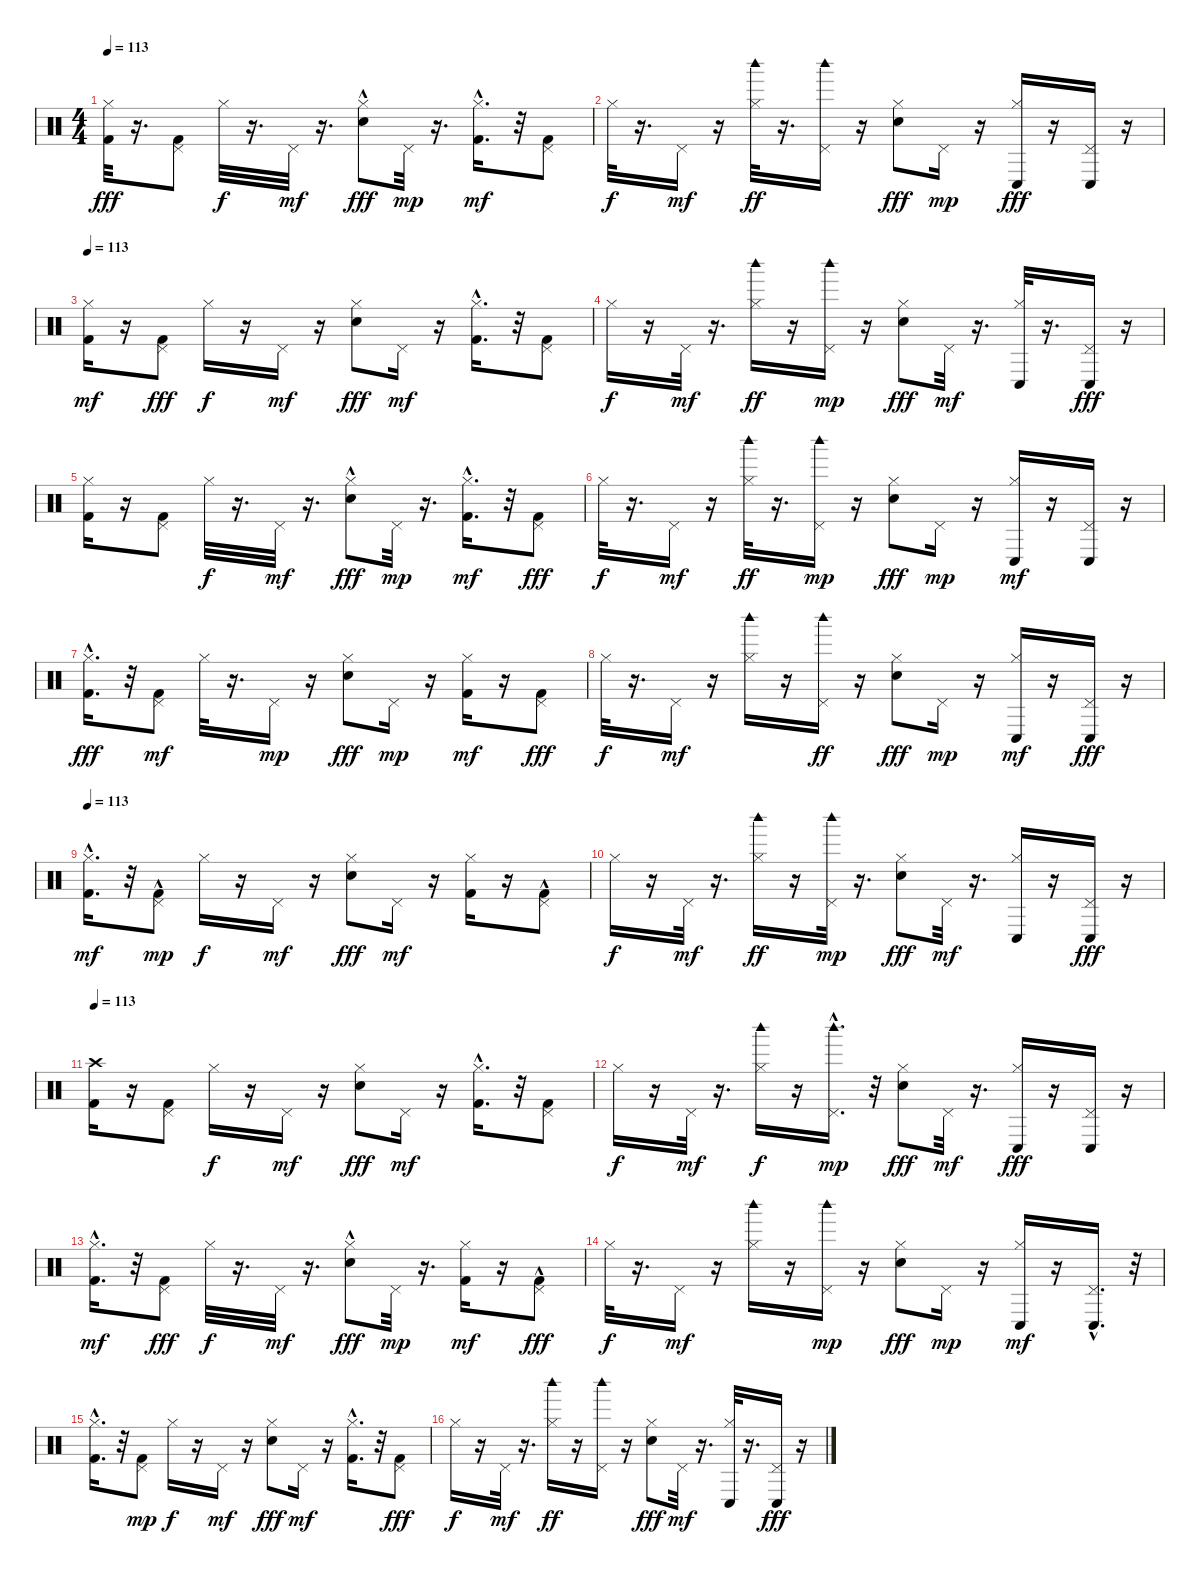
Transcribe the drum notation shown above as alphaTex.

\track "" {instrument percussion}
\staff {score}
\articulation defaults
\ts (4 4)
\tempo 113
\clef neutral
\ks c
("Hi-Hat (closed)" "Kick (hit) 2").32{dy fff} r.16{d} ("Pedal Hi-Hat (hit)" "Kick (hit) 2").8 "Hi-Hat (closed)".32{dy f} r.16{d} "Pedal Hi-Hat (hit)".32{dy mf} r.16{d} ("Hi-Hat (closed)" "Snare (hit) 2"{hac}).8{dy fff} "Pedal Hi-Hat (hit)".32{dy mp} r.16{d} ("Kick (hit) 2"{hac} "Hi-Hat (closed)").16{d dy mf} r.32 ("Kick (hit) 2" "Pedal Hi-Hat (hit)").8 |
"Hi-Hat (closed)".32{dy f} r.16{d} "Pedal Hi-Hat (hit)".16{dy mf} r.16 ("Hi-Hat (closed)" "Woodblock high (hit)").32{dy ff} r.16{d} ("Pedal Hi-Hat (hit)" "Woodblock high (hit)").16 r.16 ("Hi-Hat (closed)" "Snare (hit) 2").8{dy fff} "Pedal Hi-Hat (hit)".16{dy mp} r.16 ("Hi-Hat (closed)" "Conga low (hit)").16{dy fff} r.16 ("Pedal Hi-Hat (hit)" "Conga low (hit)").16 r.16 |
\tempo 113
("Kick (hit) 2" "Hi-Hat (closed)").16{dy mf} r.16 ("Pedal Hi-Hat (hit)" "Kick (hit) 2").8{dy fff} "Hi-Hat (closed)".16{dy f} r.16 "Pedal Hi-Hat (hit)".16{dy mf} r.16 ("Hi-Hat (closed)" "Snare (hit) 2").8{dy fff} "Pedal Hi-Hat (hit)".16{dy mf} r.16 ("Kick (hit) 2"{hac} "Hi-Hat (closed)").16{d} r.32 ("Kick (hit) 2" "Pedal Hi-Hat (hit)").8 |
"Hi-Hat (closed)".16{dy f} r.16 "Pedal Hi-Hat (hit)".32{dy mf} r.16{d} ("Woodblock high (hit)" "Hi-Hat (closed)").16{dy ff} r.16 ("Woodblock high (hit)" "Pedal Hi-Hat (hit)").16{dy mp} r.16 ("Hi-Hat (closed)" "Snare (hit) 2").8{dy fff} "Pedal Hi-Hat (hit)".32{dy mf} r.16{d} ("Conga low (hit)" "Hi-Hat (closed)").32 r.16{d} ("Pedal Hi-Hat (hit)" "Conga low (hit)").16{dy fff} r.16 |
("Hi-Hat (closed)" "Kick (hit) 2").16 r.16 ("Pedal Hi-Hat (hit)" "Kick (hit) 2").8 "Hi-Hat (closed)".32{dy f} r.16{d} "Pedal Hi-Hat (hit)".32{dy mf} r.16{d} ("Hi-Hat (closed)" "Snare (hit) 2"{hac}).8{dy fff} "Pedal Hi-Hat (hit)".32{dy mp} r.16{d} ("Kick (hit) 2"{hac} "Hi-Hat (closed)").16{d dy mf} r.32 ("Pedal Hi-Hat (hit)" "Kick (hit) 2").8{dy fff} |
"Hi-Hat (closed)".32{dy f} r.16{d} "Pedal Hi-Hat (hit)".16{dy mf} r.16 ("Hi-Hat (closed)" "Woodblock high (hit)").32{dy ff} r.16{d} ("Pedal Hi-Hat (hit)" "Woodblock high (hit)").16{dy mp} r.16 ("Hi-Hat (closed)" "Snare (hit) 2").8{dy fff} "Pedal Hi-Hat (hit)".16{dy mp} r.16 ("Conga low (hit)" "Hi-Hat (closed)").16{dy mf} r.16 ("Conga low (hit)" "Pedal Hi-Hat (hit)").16 r.16 |
("Kick (hit) 2"{hac} "Hi-Hat (closed)").16{d dy fff} r.32 ("Kick (hit) 2" "Pedal Hi-Hat (hit)").8{dy mf} "Hi-Hat (closed)".32 r.16{d} "Pedal Hi-Hat (hit)".16{dy mp} r.16 ("Hi-Hat (closed)" "Snare (hit) 2").8{dy fff} "Pedal Hi-Hat (hit)".16{dy mp} r.16 ("Kick (hit) 2" "Hi-Hat (closed)").16{dy mf} r.16 ("Pedal Hi-Hat (hit)" "Kick (hit) 2").8{dy fff} |
"Hi-Hat (closed)".32{dy f} r.16{d} "Pedal Hi-Hat (hit)".16{dy mf} r.16 ("Woodblock high (hit)" "Hi-Hat (closed)").16 r.16 ("Pedal Hi-Hat (hit)" "Woodblock high (hit)").16{dy ff} r.16 ("Hi-Hat (closed)" "Snare (hit) 2").8{dy fff} "Pedal Hi-Hat (hit)".16{dy mp} r.16 ("Conga low (hit)" "Hi-Hat (closed)").16{dy mf} r.16 ("Pedal Hi-Hat (hit)" "Conga low (hit)").16{dy fff} r.16 |
\tempo 113
("Kick (hit) 2"{hac} "Hi-Hat (closed)").16{d dy mf} r.32 ("Kick (hit) 2"{hac} "Pedal Hi-Hat (hit)").8{dy mp} "Hi-Hat (closed)".16{dy f} r.16 "Pedal Hi-Hat (hit)".16{dy mf} r.16 ("Hi-Hat (closed)" "Snare (hit) 2").8{dy fff} "Pedal Hi-Hat (hit)".16{dy mf} r.16 ("Kick (hit) 2" "Hi-Hat (closed)").16 r.16 ("Kick (hit) 2"{hac} "Pedal Hi-Hat (hit)").8 |
"Hi-Hat (closed)".16{dy f} r.16 "Pedal Hi-Hat (hit)".32{dy mf} r.16{d} ("Hi-Hat (closed)" "Woodblock high (hit)").16{dy ff} r.16 ("Pedal Hi-Hat (hit)" "Woodblock high (hit)").32{dy mp} r.16{d} ("Hi-Hat (closed)" "Snare (hit) 2").8{dy fff} "Pedal Hi-Hat (hit)".32{dy mf} r.16{d} ("Conga low (hit)" "Hi-Hat (closed)").16 r.16 ("Pedal Hi-Hat (hit)" "Conga low (hit)").16{dy fff} r.16 |
\tempo 113
("Crash high (hit)" "Kick (hit) 2").16 r.16 ("Pedal Hi-Hat (hit)" "Kick (hit) 2").8 "Hi-Hat (closed)".16{dy f} r.16 "Pedal Hi-Hat (hit)".16{dy mf} r.16 ("Hi-Hat (closed)" "Snare (hit) 2").8{dy fff} "Pedal Hi-Hat (hit)".16{dy mf} r.16 ("Kick (hit) 2"{hac} "Hi-Hat (closed)").16{d} r.32 ("Kick (hit) 2" "Pedal Hi-Hat (hit)").8 |
"Hi-Hat (closed)".16{dy f} r.16 "Pedal Hi-Hat (hit)".32{dy mf} r.16{d} ("Hi-Hat (closed)" "Woodblock high (hit)").16{dy f} r.16 ("Pedal Hi-Hat (hit)" "Woodblock high (hit)"{hac}).16{d dy mp} r.32 ("Hi-Hat (closed)" "Snare (hit) 2").8{dy fff} "Pedal Hi-Hat (hit)".32{dy mf} r.16{d} ("Hi-Hat (closed)" "Conga low (hit)").16{dy fff} r.16 ("Pedal Hi-Hat (hit)" "Conga low (hit)").16 r.16 |
("Kick (hit) 2"{hac} "Hi-Hat (closed)").16{d dy mf} r.32 ("Pedal Hi-Hat (hit)" "Kick (hit) 2").8{dy fff} "Hi-Hat (closed)".32{dy f} r.16{d} "Pedal Hi-Hat (hit)".32{dy mf} r.16{d} ("Hi-Hat (closed)" "Snare (hit) 2"{hac}).8{dy fff} "Pedal Hi-Hat (hit)".32{dy mp} r.16{d} ("Kick (hit) 2" "Hi-Hat (closed)").16{dy mf} r.16 ("Pedal Hi-Hat (hit)" "Kick (hit) 2"{hac}).8{dy fff} |
"Hi-Hat (closed)".32{dy f} r.16{d} "Pedal Hi-Hat (hit)".16{dy mf} r.16 ("Woodblock high (hit)" "Hi-Hat (closed)").16 r.16 ("Woodblock high (hit)" "Pedal Hi-Hat (hit)").16{dy mp} r.16 ("Hi-Hat (closed)" "Snare (hit) 2").8{dy fff} "Pedal Hi-Hat (hit)".16{dy mp} r.16 ("Conga low (hit)" "Hi-Hat (closed)").16{dy mf} r.16 ("Conga low (hit)"{hac} "Pedal Hi-Hat (hit)").16{d} r.32 |
("Kick (hit) 2"{hac} "Hi-Hat (closed)").16{d} r.32 ("Kick (hit) 2" "Pedal Hi-Hat (hit)").8{dy mp} "Hi-Hat (closed)".16{dy f} r.16 "Pedal Hi-Hat (hit)".16{dy mf} r.16 ("Hi-Hat (closed)" "Snare (hit) 2").8{dy fff} "Pedal Hi-Hat (hit)".16{dy mf} r.16 ("Kick (hit) 2"{hac} "Hi-Hat (closed)").16{d} r.32 ("Pedal Hi-Hat (hit)" "Kick (hit) 2").8{dy fff} |
"Hi-Hat (closed)".16{dy f} r.16 "Pedal Hi-Hat (hit)".32{dy mf} r.16{d} ("Hi-Hat (closed)" "Woodblock high (hit)").16{dy ff} r.16 ("Pedal Hi-Hat (hit)" "Woodblock high (hit)").16 r.16 ("Hi-Hat (closed)" "Snare (hit) 2").8{dy fff} "Pedal Hi-Hat (hit)".32{dy mf} r.16{d} ("Conga low (hit)" "Hi-Hat (closed)").32 r.16{d} ("Pedal Hi-Hat (hit)" "Conga low (hit)").16{dy fff} r.16
